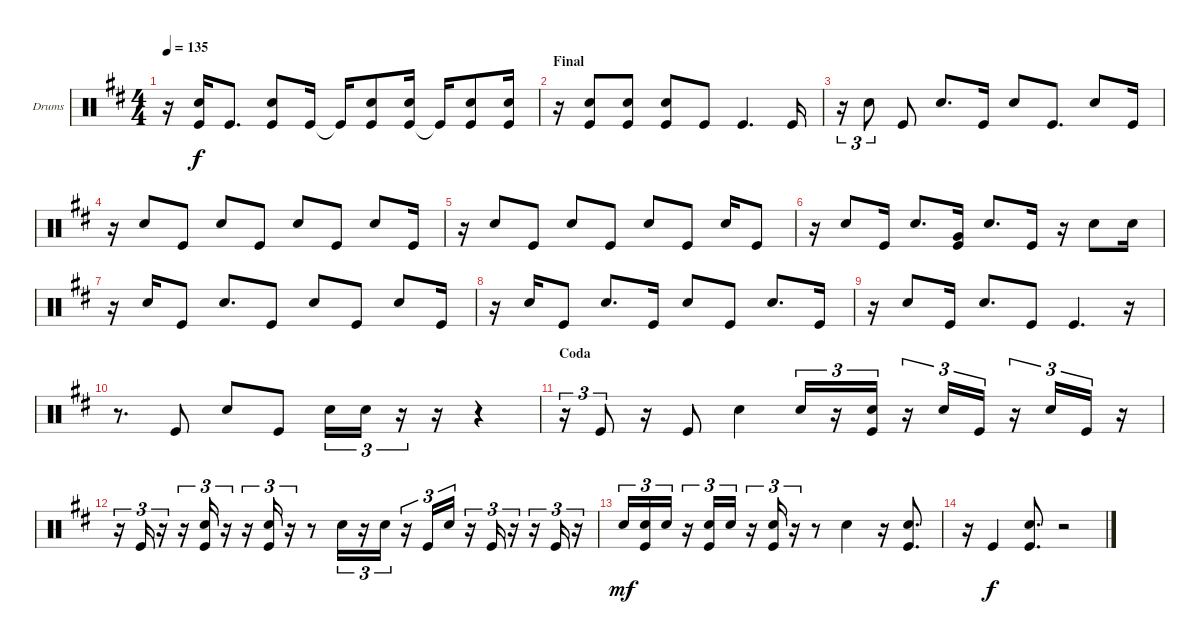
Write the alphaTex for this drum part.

\bracketExtendMode groupsimilarinstruments
\firstSystemTrackNameOrientation horizontal
\otherSystemsTrackNameOrientation horizontal
\track ("Kick" "Drums") {instrument percussion}
\staff {score}
\articulation defaults
\ts (4 4)
\tempo 135
\clef neutral
\ks d
r.16{dy f} ("Kick (hit)" "Snare (hit) 2").16 "Kick (hit)".8{d} ("Kick (hit)" "Snare (hit) 2").8 "Kick (hit)".16 "Kick (hit)"{t}.16 ("Kick (hit)" "Snare (hit) 2").8 ("Kick (hit)" "Snare (hit) 2").16 "Kick (hit)"{t}.16 ("Kick (hit)" "Snare (hit) 2").8 ("Kick (hit)" "Snare (hit) 2").16 |
\section ("" "Final")
r.16 ("Kick (hit)" "Snare (hit) 2").8 ("Kick (hit)" "Snare (hit) 2").8 ("Kick (hit)" "Snare (hit) 2").8 "Kick (hit)".8 "Kick (hit)".4{d} "Kick (hit)".16 |
r.16{tu (3 2)} "Snare (hit) 2".8{tu (3 2)} "Kick (hit)".8 "Snare (hit) 2".8{d} "Kick (hit)".16 "Snare (hit) 2".8 "Kick (hit)".8{d} "Snare (hit) 2".8 "Kick (hit)".16 |
r.16 "Snare (hit) 2".8 "Kick (hit)".8 "Snare (hit) 2".8 "Kick (hit)".8 "Snare (hit) 2".8 "Kick (hit)".8 "Snare (hit) 2".8 "Kick (hit)".16 |
r.16 "Snare (hit) 2".8 "Kick (hit)".8 "Snare (hit) 2".8 "Kick (hit)".8 "Snare (hit) 2".8 "Kick (hit)".8 "Snare (hit) 2".16 "Kick (hit)".8 |
r.16 "Snare (hit) 2".8 "Kick (hit)".16 "Snare (hit) 2".8{d} ("Kick (hit)" "Very Low Tom (hit)").16 "Snare (hit) 2".8{d} "Kick (hit)".16 r.16 "Snare (hit) 2".8 "Snare (hit) 2".16 |
r.16 "Snare (hit) 2".16 "Kick (hit)".8 "Snare (hit) 2".8{d} "Kick (hit)".8 "Snare (hit) 2".8 "Kick (hit)".8 "Snare (hit) 2".8 "Kick (hit)".16 |
r.16 "Snare (hit) 2".16 "Kick (hit)".8 "Snare (hit) 2".8{d} "Kick (hit)".16 "Snare (hit) 2".8 "Kick (hit)".8 "Snare (hit) 2".8{d} "Kick (hit)".16 |
r.16 "Snare (hit) 2".8 "Kick (hit)".16 "Snare (hit) 2".8{d} "Kick (hit)".8 "Kick (hit)".4{d} r.16 |
r.8{d} "Kick (hit)".8 "Snare (hit) 2".8 "Kick (hit)".8 "Snare (hit) 2".16{tu (3 2)} "Snare (hit) 2".16{tu (3 2)} r.16{tu (3 2)} r.16 r.4 |
\section ("" "Coda")
\scale
0.577891 r.16{tu (3 2)} "Kick (hit)".8{tu (3 2)} r.16 "Kick (hit)".8 "Snare (hit) 2".4 "Snare (hit) 2".16{tu (3 2)} r.16{tu (3 2)} ("Snare (hit) 2" "Kick (hit)").16{tu (3 2)} r.16{tu (3 2)} "Snare (hit) 2".16{tu (3 2)} "Kick (hit)".16{tu (3 2)} r.16{tu (3 2)} "Snare (hit) 2".16{tu (3 2)} "Kick (hit)".16{tu (3 2)} r.16 |
\scale
0.421715 r.16{tu (3 2)} "Kick (hit)".16{tu (3 2)} r.16{tu (3 2)} r.16{tu (3 2)} ("Kick (hit)" "Snare (hit) 2").16{tu (3 2)} r.16{tu (3 2)} r.16{tu (3 2)} ("Kick (hit)" "Snare (hit) 2").16{tu (3 2)} r.16{tu (3 2)} r.8 "Snare (hit) 2".16{tu (3 2)} r.16{tu (3 2)} "Snare (hit) 2".16{tu (3 2)} r.16{tu (3 2)} "Kick (hit)".16{tu (3 2)} "Snare (hit) 2".16{tu (3 2)} r.16{tu (3 2)} "Kick (hit)".16{tu (3 2)} r.16{tu (3 2)} r.16{tu (3 2)} "Kick (hit)".16{tu (3 2)} r.16{tu (3 2)} |
"Snare (hit) 2".16{tu (3 2) dy mf} ("Snare (hit) 2" "Kick (hit)").16{tu (3 2)} "Snare (hit) 2".16{tu (3 2)} r.16{tu (3 2)} ("Snare (hit) 2" "Kick (hit)").16{tu (3 2)} "Snare (hit) 2".16{tu (3 2)} r.16{tu (3 2)} ("Snare (hit) 2" "Kick (hit)").16{tu (3 2)} r.16{tu (3 2)} r.8 "Snare (hit) 2".4 r.16 ("Snare (hit) 2" "Kick (hit)").8{d} |
r.16 "Kick (hit)".4{dy f} ("Kick (hit)" "Snare (hit) 2").8{d} r.2
